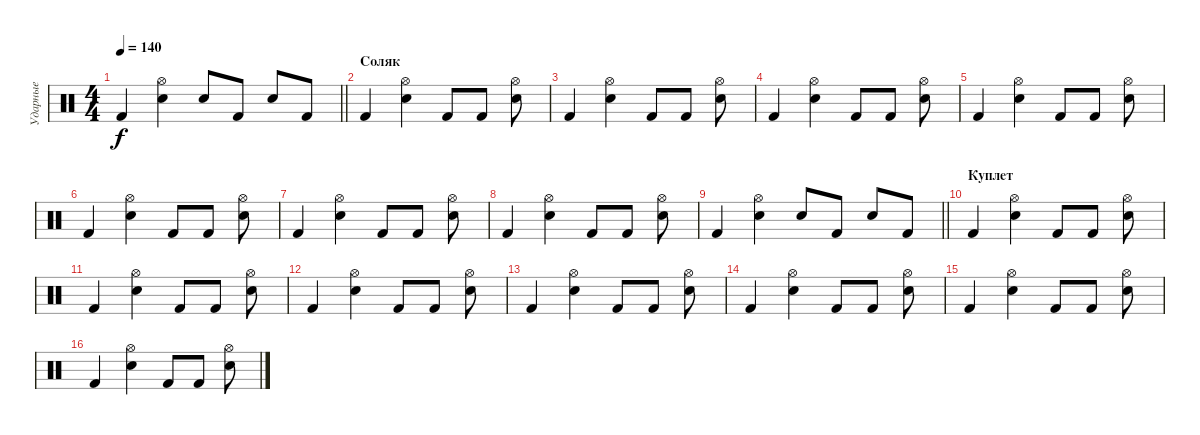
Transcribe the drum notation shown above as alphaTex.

\track ("Ударные" "Ударные") {instrument percussion}
\staff {score}
\articulation defaults
\ts (4 4)
\tempo 140
\clef neutral
\barLineRight lightlight
\ks c "Kick (hit) 2".4{dy f}
("Electric Snare (hit)" "Hi-Hat (open)").4 "Electric Snare (hit)".8 "Kick (hit) 2".8 "Electric Snare (hit)".8 "Kick (hit) 2".8 |
\section ("" "Соляк")
"Kick (hit) 2".4 ("Electric Snare (hit)" "Hi-Hat (open)").4 "Kick (hit) 2".8 "Kick (hit) 2".8 ("Electric Snare (hit)" "Hi-Hat (open)").8 |
"Kick (hit) 2".4 ("Electric Snare (hit)" "Hi-Hat (open)").4 "Kick (hit) 2".8 "Kick (hit) 2".8 ("Electric Snare (hit)" "Hi-Hat (open)").8 |
"Kick (hit) 2".4 ("Electric Snare (hit)" "Hi-Hat (open)").4 "Kick (hit) 2".8 "Kick (hit) 2".8 ("Electric Snare (hit)" "Hi-Hat (open)").8 |
"Kick (hit) 2".4 ("Electric Snare (hit)" "Hi-Hat (open)").4 "Kick (hit) 2".8 "Kick (hit) 2".8 ("Electric Snare (hit)" "Hi-Hat (open)").8 |
"Kick (hit) 2".4 ("Electric Snare (hit)" "Hi-Hat (open)").4 "Kick (hit) 2".8 "Kick (hit) 2".8 ("Electric Snare (hit)" "Hi-Hat (open)").8 |
"Kick (hit) 2".4 ("Electric Snare (hit)" "Hi-Hat (open)").4 "Kick (hit) 2".8 "Kick (hit) 2".8 ("Electric Snare (hit)" "Hi-Hat (open)").8 |
"Kick (hit) 2".4 ("Electric Snare (hit)" "Hi-Hat (open)").4 "Kick (hit) 2".8 "Kick (hit) 2".8 ("Electric Snare (hit)" "Hi-Hat (open)").8 |
\barLineRight lightlight "Kick (hit) 2".4
("Electric Snare (hit)" "Hi-Hat (open)").4 "Electric Snare (hit)".8 "Kick (hit) 2".8 "Electric Snare (hit)".8 "Kick (hit) 2".8 |
\section ("" "Куплет")
"Kick (hit) 2".4 ("Electric Snare (hit)" "Hi-Hat (open)").4 "Kick (hit) 2".8 "Kick (hit) 2".8 ("Electric Snare (hit)" "Hi-Hat (open)").8 |
"Kick (hit) 2".4 ("Electric Snare (hit)" "Hi-Hat (open)").4 "Kick (hit) 2".8 "Kick (hit) 2".8 ("Electric Snare (hit)" "Hi-Hat (open)").8 |
"Kick (hit) 2".4 ("Electric Snare (hit)" "Hi-Hat (open)").4 "Kick (hit) 2".8 "Kick (hit) 2".8 ("Electric Snare (hit)" "Hi-Hat (open)").8 |
"Kick (hit) 2".4 ("Electric Snare (hit)" "Hi-Hat (open)").4 "Kick (hit) 2".8 "Kick (hit) 2".8 ("Electric Snare (hit)" "Hi-Hat (open)").8 |
"Kick (hit) 2".4 ("Electric Snare (hit)" "Hi-Hat (open)").4 "Kick (hit) 2".8 "Kick (hit) 2".8 ("Electric Snare (hit)" "Hi-Hat (open)").8 |
"Kick (hit) 2".4 ("Electric Snare (hit)" "Hi-Hat (open)").4 "Kick (hit) 2".8 "Kick (hit) 2".8 ("Electric Snare (hit)" "Hi-Hat (open)").8 |
"Kick (hit) 2".4 ("Electric Snare (hit)" "Hi-Hat (open)").4 "Kick (hit) 2".8 "Kick (hit) 2".8 ("Electric Snare (hit)" "Hi-Hat (open)").8
